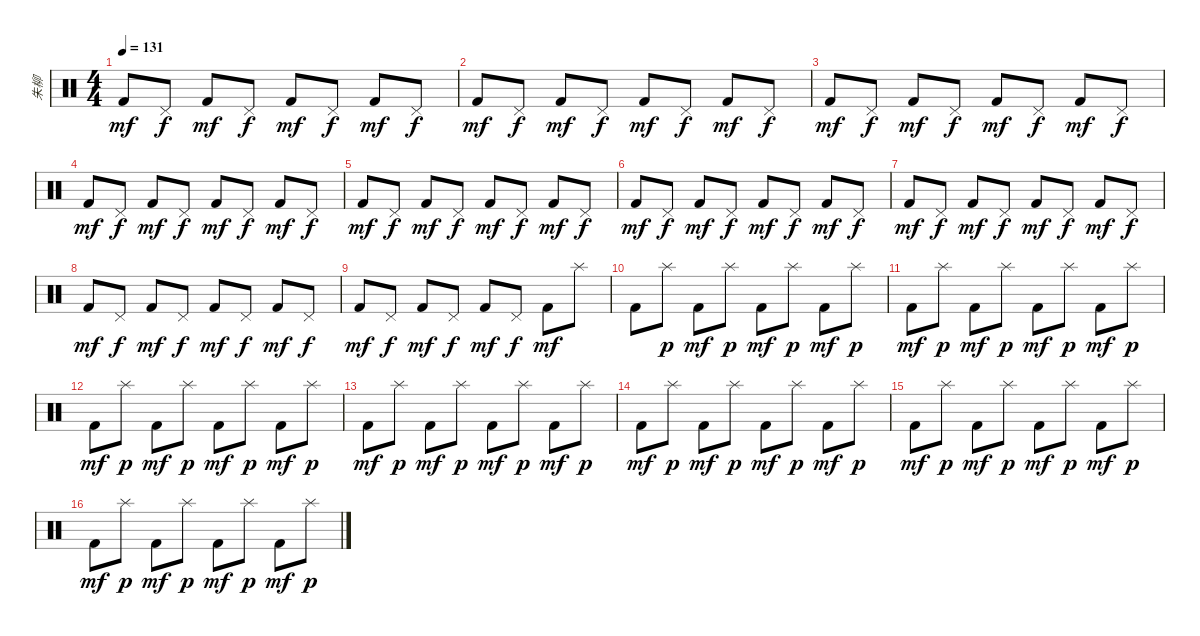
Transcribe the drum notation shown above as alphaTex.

\track ("朱柳" "朱柳") {instrument percussion}
\staff {score}
\articulation defaults
\ts (4 4)
\tempo 131
\clef neutral
\ks c "Kick (hit) 2".8{dy mf} "Pedal Hi-Hat (hit)".8{dy f} "Kick (hit) 2".8{dy mf} "Pedal Hi-Hat (hit)".8{dy f} "Kick (hit) 2".8{dy mf} "Pedal Hi-Hat (hit)".8{dy f} "Kick (hit) 2".8{dy mf} "Pedal Hi-Hat (hit)".8{dy f}
|
"Kick (hit) 2".8{dy mf} "Pedal Hi-Hat (hit)".8{dy f} "Kick (hit) 2".8{dy mf} "Pedal Hi-Hat (hit)".8{dy f} "Kick (hit) 2".8{dy mf} "Pedal Hi-Hat (hit)".8{dy f} "Kick (hit) 2".8{dy mf} "Pedal Hi-Hat (hit)".8{dy f} |
"Kick (hit) 2".8{dy mf} "Pedal Hi-Hat (hit)".8{dy f} "Kick (hit) 2".8{dy mf} "Pedal Hi-Hat (hit)".8{dy f} "Kick (hit) 2".8{dy mf} "Pedal Hi-Hat (hit)".8{dy f} "Kick (hit) 2".8{dy mf} "Pedal Hi-Hat (hit)".8{dy f} |
"Kick (hit) 2".8{dy mf} "Pedal Hi-Hat (hit)".8{dy f} "Kick (hit) 2".8{dy mf} "Pedal Hi-Hat (hit)".8{dy f} "Kick (hit) 2".8{dy mf} "Pedal Hi-Hat (hit)".8{dy f} "Kick (hit) 2".8{dy mf} "Pedal Hi-Hat (hit)".8{dy f} |
"Kick (hit) 2".8{dy mf} "Pedal Hi-Hat (hit)".8{dy f} "Kick (hit) 2".8{dy mf} "Pedal Hi-Hat (hit)".8{dy f} "Kick (hit) 2".8{dy mf} "Pedal Hi-Hat (hit)".8{dy f} "Kick (hit) 2".8{dy mf} "Pedal Hi-Hat (hit)".8{dy f} |
"Kick (hit) 2".8{dy mf} "Pedal Hi-Hat (hit)".8{dy f} "Kick (hit) 2".8{dy mf} "Pedal Hi-Hat (hit)".8{dy f} "Kick (hit) 2".8{dy mf} "Pedal Hi-Hat (hit)".8{dy f} "Kick (hit) 2".8{dy mf} "Pedal Hi-Hat (hit)".8{dy f} |
"Kick (hit) 2".8{dy mf} "Pedal Hi-Hat (hit)".8{dy f} "Kick (hit) 2".8{dy mf} "Pedal Hi-Hat (hit)".8{dy f} "Kick (hit) 2".8{dy mf} "Pedal Hi-Hat (hit)".8{dy f} "Kick (hit) 2".8{dy mf} "Pedal Hi-Hat (hit)".8{dy f} |
"Kick (hit) 2".8{dy mf} "Pedal Hi-Hat (hit)".8{dy f} "Kick (hit) 2".8{dy mf} "Pedal Hi-Hat (hit)".8{dy f} "Kick (hit) 2".8{dy mf} "Pedal Hi-Hat (hit)".8{dy f} "Kick (hit) 2".8{dy mf} "Pedal Hi-Hat (hit)".8{dy f} |
"Kick (hit) 2".8{dy mf} "Pedal Hi-Hat (hit)".8{dy f} "Kick (hit) 2".8{dy mf} "Pedal Hi-Hat (hit)".8{dy f} "Kick (hit) 2".8{dy mf} "Pedal Hi-Hat (hit)".8{dy f} "Kick (hit) 2".8{dy mf} "Splash (hit)".8 |
"Kick (hit) 2".8 "Splash (hit)".8{dy p} "Kick (hit) 2".8{dy mf} "Splash (hit)".8{dy p} "Kick (hit) 2".8{dy mf} "Splash (hit)".8{dy p} "Kick (hit) 2".8{dy mf} "Splash (hit)".8{dy p} |
"Kick (hit) 2".8{dy mf} "Splash (hit)".8{dy p} "Kick (hit) 2".8{dy mf} "Splash (hit)".8{dy p} "Kick (hit) 2".8{dy mf} "Splash (hit)".8{dy p} "Kick (hit) 2".8{dy mf} "Splash (hit)".8{dy p} |
"Kick (hit) 2".8{dy mf} "Splash (hit)".8{dy p} "Kick (hit) 2".8{dy mf} "Splash (hit)".8{dy p} "Kick (hit) 2".8{dy mf} "Splash (hit)".8{dy p} "Kick (hit) 2".8{dy mf} "Splash (hit)".8{dy p} |
"Kick (hit) 2".8{dy mf} "Splash (hit)".8{dy p} "Kick (hit) 2".8{dy mf} "Splash (hit)".8{dy p} "Kick (hit) 2".8{dy mf} "Splash (hit)".8{dy p} "Kick (hit) 2".8{dy mf} "Splash (hit)".8{dy p} |
"Kick (hit) 2".8{dy mf} "Splash (hit)".8{dy p} "Kick (hit) 2".8{dy mf} "Splash (hit)".8{dy p} "Kick (hit) 2".8{dy mf} "Splash (hit)".8{dy p} "Kick (hit) 2".8{dy mf} "Splash (hit)".8{dy p} |
"Kick (hit) 2".8{dy mf} "Splash (hit)".8{dy p} "Kick (hit) 2".8{dy mf} "Splash (hit)".8{dy p} "Kick (hit) 2".8{dy mf} "Splash (hit)".8{dy p} "Kick (hit) 2".8{dy mf} "Splash (hit)".8{dy p} |
"Kick (hit) 2".8{dy mf} "Splash (hit)".8{dy p} "Kick (hit) 2".8{dy mf} "Splash (hit)".8{dy p} "Kick (hit) 2".8{dy mf} "Splash (hit)".8{dy p} "Kick (hit) 2".8{dy mf} "Splash (hit)".8{dy p}
